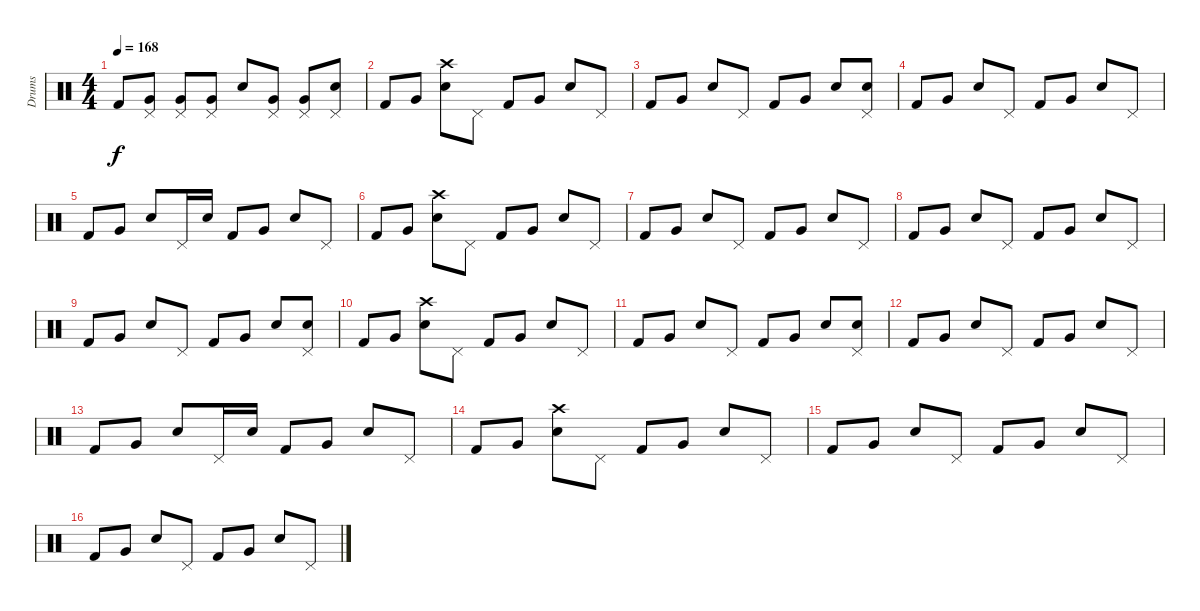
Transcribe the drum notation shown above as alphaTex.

\track ("Drums" "Drums") {instrument percussion}
\staff {score}
\articulation defaults
\ts (4 4)
\tempo 168
\clef neutral
\ks c "Kick (hit) 2".8{dy f}
("Pedal Hi-Hat (hit)" "Very Low Tom (hit)").8 ("Pedal Hi-Hat (hit)" "Very Low Tom (hit)").8 ("Pedal Hi-Hat (hit)" "Very Low Tom (hit)").8 "Electric Snare (hit)".8 ("Pedal Hi-Hat (hit)" "Very Low Tom (hit)").8 ("Pedal Hi-Hat (hit)" "Very Low Tom (hit)").8 ("Pedal Hi-Hat (hit)" "Electric Snare (hit)").8 |
"Kick (hit) 2".8 "Very Low Tom (hit)".8 ("Crash high (hit)" "Electric Snare (hit)").8 "Pedal Hi-Hat (hit)".8 "Kick (hit) 2".8 "Very Low Tom (hit)".8 "Electric Snare (hit)".8 "Pedal Hi-Hat (hit)".8 |
"Kick (hit) 2".8 "Very Low Tom (hit)".8 "Electric Snare (hit)".8 "Pedal Hi-Hat (hit)".8 "Kick (hit) 2".8 "Very Low Tom (hit)".8 "Electric Snare (hit)".8 ("Pedal Hi-Hat (hit)" "Electric Snare (hit)").8 |
"Kick (hit) 2".8 "Very Low Tom (hit)".8 "Electric Snare (hit)".8 "Pedal Hi-Hat (hit)".8 "Kick (hit) 2".8 "Very Low Tom (hit)".8 "Electric Snare (hit)".8 "Pedal Hi-Hat (hit)".8 |
"Kick (hit) 2".8 "Very Low Tom (hit)".8 "Electric Snare (hit)".8 "Pedal Hi-Hat (hit)".16 "Electric Snare (hit)".16 "Kick (hit) 2".8 "Very Low Tom (hit)".8 "Electric Snare (hit)".8 "Pedal Hi-Hat (hit)".8 |
"Kick (hit) 2".8 "Very Low Tom (hit)".8 ("Crash high (hit)" "Electric Snare (hit)").8 "Pedal Hi-Hat (hit)".8 "Kick (hit) 2".8 "Very Low Tom (hit)".8 "Electric Snare (hit)".8 "Pedal Hi-Hat (hit)".8 |
"Kick (hit) 2".8 "Very Low Tom (hit)".8 "Electric Snare (hit)".8 "Pedal Hi-Hat (hit)".8 "Kick (hit) 2".8 "Very Low Tom (hit)".8 "Electric Snare (hit)".8 "Pedal Hi-Hat (hit)".8 |
"Kick (hit) 2".8 "Very Low Tom (hit)".8 "Electric Snare (hit)".8 "Pedal Hi-Hat (hit)".8 "Kick (hit) 2".8 "Very Low Tom (hit)".8 "Electric Snare (hit)".8 "Pedal Hi-Hat (hit)".8 |
"Kick (hit) 2".8 "Very Low Tom (hit)".8 "Electric Snare (hit)".8 "Pedal Hi-Hat (hit)".8 "Kick (hit) 2".8 "Very Low Tom (hit)".8 "Electric Snare (hit)".8 ("Pedal Hi-Hat (hit)" "Electric Snare (hit)").8 |
"Kick (hit) 2".8 "Very Low Tom (hit)".8 ("Crash high (hit)" "Electric Snare (hit)").8 "Pedal Hi-Hat (hit)".8 "Kick (hit) 2".8 "Very Low Tom (hit)".8 "Electric Snare (hit)".8 "Pedal Hi-Hat (hit)".8 |
"Kick (hit) 2".8 "Very Low Tom (hit)".8 "Electric Snare (hit)".8 "Pedal Hi-Hat (hit)".8 "Kick (hit) 2".8 "Very Low Tom (hit)".8 "Electric Snare (hit)".8 ("Pedal Hi-Hat (hit)" "Electric Snare (hit)").8 |
"Kick (hit) 2".8 "Very Low Tom (hit)".8 "Electric Snare (hit)".8 "Pedal Hi-Hat (hit)".8 "Kick (hit) 2".8 "Very Low Tom (hit)".8 "Electric Snare (hit)".8 "Pedal Hi-Hat (hit)".8 |
"Kick (hit) 2".8 "Very Low Tom (hit)".8 "Electric Snare (hit)".8 "Pedal Hi-Hat (hit)".16 "Electric Snare (hit)".16 "Kick (hit) 2".8 "Very Low Tom (hit)".8 "Electric Snare (hit)".8 "Pedal Hi-Hat (hit)".8 |
"Kick (hit) 2".8 "Very Low Tom (hit)".8 ("Crash high (hit)" "Electric Snare (hit)").8 "Pedal Hi-Hat (hit)".8 "Kick (hit) 2".8 "Very Low Tom (hit)".8 "Electric Snare (hit)".8 "Pedal Hi-Hat (hit)".8 |
"Kick (hit) 2".8 "Very Low Tom (hit)".8 "Electric Snare (hit)".8 "Pedal Hi-Hat (hit)".8 "Kick (hit) 2".8 "Very Low Tom (hit)".8 "Electric Snare (hit)".8 "Pedal Hi-Hat (hit)".8 |
"Kick (hit) 2".8 "Very Low Tom (hit)".8 "Electric Snare (hit)".8 "Pedal Hi-Hat (hit)".8 "Kick (hit) 2".8 "Very Low Tom (hit)".8 "Electric Snare (hit)".8 "Pedal Hi-Hat (hit)".8
